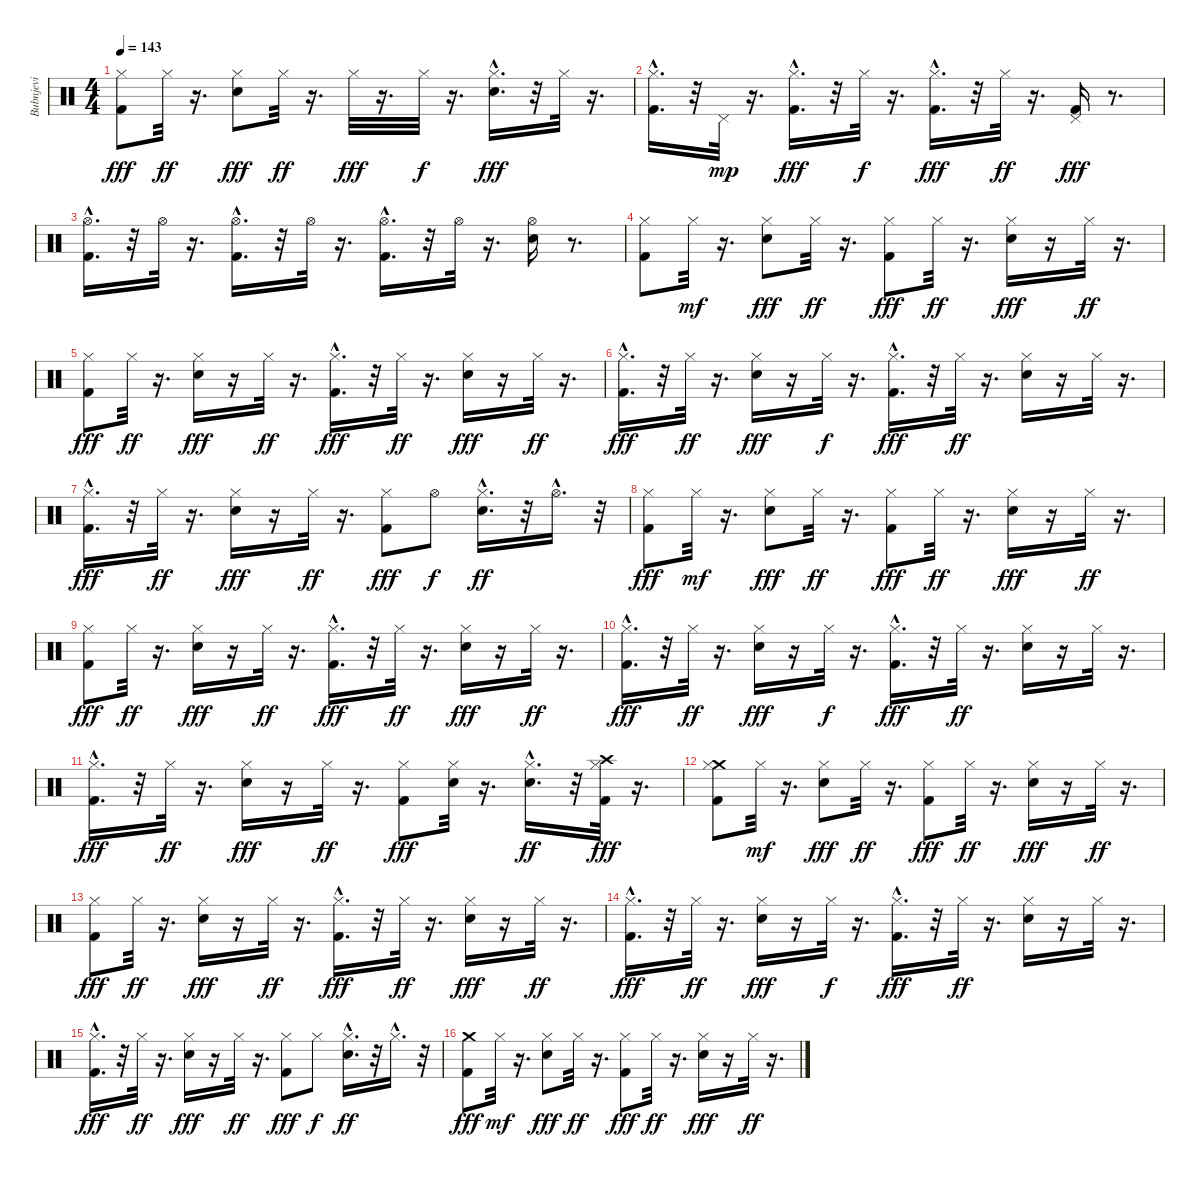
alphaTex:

\track ("Bubnjevi" "Bubnjevi") {instrument percussion}
\staff {score}
\articulation defaults
\ts (4 4)
\tempo 143
\clef neutral
\ks c
("Hi-Hat (closed)" "Kick (hit) 2").8{dy fff} "Hi-Hat (closed)".32{dy ff} r.16{d} ("Snare (hit) 2" "Hi-Hat (closed)").8{dy fff} "Hi-Hat (closed)".32{dy ff} r.16{d} "Hi-Hat (closed)".32{dy fff} r.16{d} "Hi-Hat (closed)".32{dy f} r.16{d} ("Hi-Hat (closed)" "Snare (hit) 2"{hac}).16{d dy fff} r.32 "Hi-Hat (closed)".32 r.16{d} |
("Hi-Hat (closed)" "Kick (hit) 2"{hac}).16{d} r.32 "Pedal Hi-Hat (hit)".32{dy mp} r.16{d} ("Hi-Hat (closed)"{hac} "Kick (hit) 2"{hac}).16{d dy fff} r.32 "Hi-Hat (closed)".32{dy f} r.16{d} ("Hi-Hat (closed)"{hac} "Kick (hit) 2").16{d dy fff} r.32 "Hi-Hat (closed)".32{dy ff} r.16{d} ("Pedal Hi-Hat (hit)" "Kick (hit) 2").16{dy fff} r.8{d} |
("Hi-Hat (open)"{hac} "Kick (hit) 2"{hac}).16{d} r.32 "Hi-Hat (open)".32 r.16{d} ("Hi-Hat (open)"{hac} "Kick (hit) 2"{hac}).16{d} r.32 "Hi-Hat (open)".32 r.16{d} ("Hi-Hat (open)"{hac} "Kick (hit) 2").16{d} r.32 "Hi-Hat (open)".32 r.16{d} ("Hi-Hat (open)" "Snare (hit) 2").16 r.8{d} |
("Hi-Hat (closed)" "Kick (hit) 2").8 "Hi-Hat (closed)".32{dy mf} r.16{d} ("Snare (hit) 2" "Hi-Hat (closed)").8{dy fff} "Hi-Hat (closed)".32{dy ff} r.16{d} ("Hi-Hat (closed)" "Kick (hit) 2").8{dy fff} "Hi-Hat (closed)".32{dy ff} r.16{d} ("Snare (hit) 2" "Hi-Hat (closed)").16{dy fff} r.16 "Hi-Hat (closed)".32{dy ff} r.16{d} |
("Hi-Hat (closed)" "Kick (hit) 2").8{dy fff} "Hi-Hat (closed)".32{dy ff} r.16{d} ("Snare (hit) 2" "Hi-Hat (closed)").16{dy fff} r.16 "Hi-Hat (closed)".32{dy ff} r.16{d} ("Hi-Hat (closed)" "Kick (hit) 2"{hac}).16{d dy fff} r.32 "Hi-Hat (closed)".32{dy ff} r.16{d} ("Hi-Hat (closed)" "Snare (hit) 2").16{dy fff} r.16 "Hi-Hat (closed)".32{dy ff} r.16{d} |
("Hi-Hat (closed)" "Kick (hit) 2"{hac}).16{d dy fff} r.32 "Hi-Hat (closed)".32{dy ff} r.16{d} ("Snare (hit) 2" "Hi-Hat (closed)").16{dy fff} r.16 "Hi-Hat (closed)".32{dy f} r.16{d} ("Hi-Hat (closed)" "Kick (hit) 2"{hac}).16{d dy fff} r.32 "Hi-Hat (closed)".32{dy ff} r.16{d} ("Snare (hit) 2" "Hi-Hat (closed)").16 r.16 "Hi-Hat (closed)".32 r.16{d} |
("Hi-Hat (closed)" "Kick (hit) 2"{hac}).16{d dy fff} r.32 "Hi-Hat (closed)".32{dy ff} r.16{d} ("Snare (hit) 2" "Hi-Hat (closed)").16{dy fff} r.16 "Hi-Hat (closed)".32{dy ff} r.16{d} ("Hi-Hat (closed)" "Kick (hit) 2").8{dy fff} "Hi-Hat (open)".8{dy f} ("Snare (hit) 2"{hac} "Hi-Hat (closed)").16{d dy ff} r.32 "Hi-Hat (open)"{hac}.16{d} r.32 |
("Hi-Hat (closed)" "Kick (hit) 2").8{dy fff} "Hi-Hat (closed)".32{dy mf} r.16{d} ("Snare (hit) 2" "Hi-Hat (closed)").8{dy fff} "Hi-Hat (closed)".32{dy ff} r.16{d} ("Hi-Hat (closed)" "Kick (hit) 2").8{dy fff} "Hi-Hat (closed)".32{dy ff} r.16{d} ("Snare (hit) 2" "Hi-Hat (closed)").16{dy fff} r.16 "Hi-Hat (closed)".32{dy ff} r.16{d} |
("Hi-Hat (closed)" "Kick (hit) 2").8{dy fff} "Hi-Hat (closed)".32{dy ff} r.16{d} ("Snare (hit) 2" "Hi-Hat (closed)").16{dy fff} r.16 "Hi-Hat (closed)".32{dy ff} r.16{d} ("Hi-Hat (closed)" "Kick (hit) 2"{hac}).16{d dy fff} r.32 "Hi-Hat (closed)".32{dy ff} r.16{d} ("Hi-Hat (closed)" "Snare (hit) 2").16{dy fff} r.16 "Hi-Hat (closed)".32{dy ff} r.16{d} |
("Hi-Hat (closed)" "Kick (hit) 2"{hac}).16{d dy fff} r.32 "Hi-Hat (closed)".32{dy ff} r.16{d} ("Snare (hit) 2" "Hi-Hat (closed)").16{dy fff} r.16 "Hi-Hat (closed)".32{dy f} r.16{d} ("Hi-Hat (closed)" "Kick (hit) 2"{hac}).16{d dy fff} r.32 "Hi-Hat (closed)".32{dy ff} r.16{d} ("Snare (hit) 2" "Hi-Hat (closed)").16 r.16 "Hi-Hat (closed)".32 r.16{d} |
("Hi-Hat (closed)" "Kick (hit) 2"{hac}).16{d dy fff} r.32 "Hi-Hat (closed)".32{dy ff} r.16{d} ("Snare (hit) 2" "Hi-Hat (closed)").16{dy fff} r.16 "Hi-Hat (closed)".32{dy ff} r.16{d} ("Hi-Hat (closed)" "Kick (hit) 2").8{dy fff} ("Hi-Hat (closed)" "Snare (hit) 2").32 r.16{d} ("Snare (hit) 2"{hac} "Hi-Hat (closed)").16{d dy ff} r.32 ("Crash high (hit)" "Hi-Hat (closed)" "Kick (hit) 2").32{dy fff} r.16{d} |
("Crash medium (hit)" "Hi-Hat (closed)" "Kick (hit) 2").8 "Hi-Hat (closed)".32{dy mf} r.16{d} ("Snare (hit) 2" "Hi-Hat (closed)").8{dy fff} "Hi-Hat (closed)".32{dy ff} r.16{d} ("Hi-Hat (closed)" "Kick (hit) 2").8{dy fff} "Hi-Hat (closed)".32{dy ff} r.16{d} ("Snare (hit) 2" "Hi-Hat (closed)").16{dy fff} r.16 "Hi-Hat (closed)".32{dy ff} r.16{d} |
("Hi-Hat (closed)" "Kick (hit) 2").8{dy fff} "Hi-Hat (closed)".32{dy ff} r.16{d} ("Snare (hit) 2" "Hi-Hat (closed)").16{dy fff} r.16 "Hi-Hat (closed)".32{dy ff} r.16{d} ("Hi-Hat (closed)" "Kick (hit) 2"{hac}).16{d dy fff} r.32 "Hi-Hat (closed)".32{dy ff} r.16{d} ("Hi-Hat (closed)" "Snare (hit) 2").16{dy fff} r.16 "Hi-Hat (closed)".32{dy ff} r.16{d} |
("Hi-Hat (closed)" "Kick (hit) 2"{hac}).16{d dy fff} r.32 "Hi-Hat (closed)".32{dy ff} r.16{d} ("Snare (hit) 2" "Hi-Hat (closed)").16{dy fff} r.16 "Hi-Hat (closed)".32{dy f} r.16{d} ("Hi-Hat (closed)" "Kick (hit) 2"{hac}).16{d dy fff} r.32 "Hi-Hat (closed)".32{dy ff} r.16{d} ("Snare (hit) 2" "Hi-Hat (closed)").16 r.16 "Hi-Hat (closed)".32 r.16{d} |
("Hi-Hat (closed)" "Kick (hit) 2"{hac}).16{d dy fff} r.32 "Hi-Hat (closed)".32{dy ff} r.16{d} ("Snare (hit) 2" "Hi-Hat (closed)").16{dy fff} r.16 "Hi-Hat (closed)".32{dy ff} r.16{d} ("Hi-Hat (closed)" "Kick (hit) 2").8{dy fff} "Hi-Hat (closed)".8{dy f} ("Snare (hit) 2"{hac} "Hi-Hat (closed)").16{d dy ff} r.32 "Hi-Hat (closed)"{hac}.16{d} r.32 |
("Crash medium (hit)" "Kick (hit) 2").8{dy fff} "Hi-Hat (closed)".32{dy mf} r.16{d} ("Snare (hit) 2" "Hi-Hat (closed)").8{dy fff} "Hi-Hat (closed)".32{dy ff} r.16{d} ("Hi-Hat (closed)" "Kick (hit) 2").8{dy fff} "Hi-Hat (closed)".32{dy ff} r.16{d} ("Snare (hit) 2" "Hi-Hat (closed)").16{dy fff} r.16 "Hi-Hat (closed)".32{dy ff} r.16{d}
